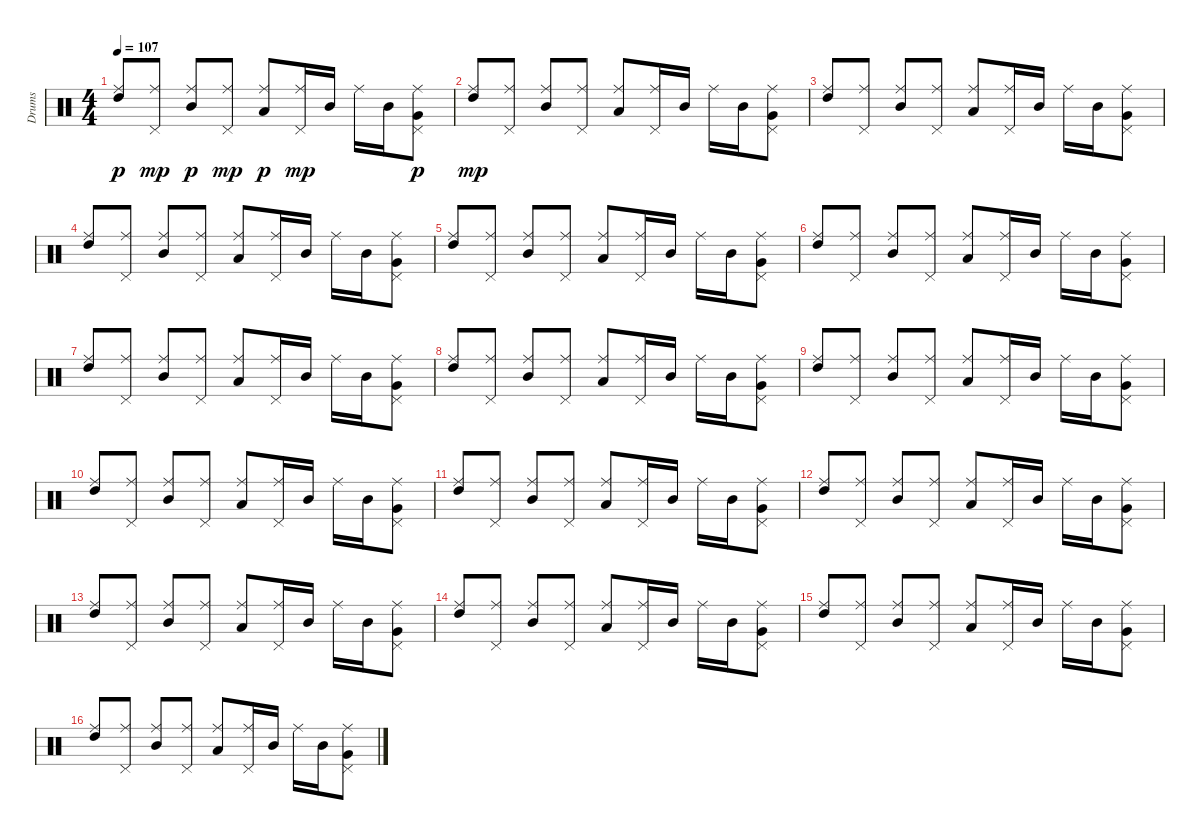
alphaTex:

\track ("Drums" "Drums") {instrument percussion}
\staff {score}
\articulation defaults
\ts (4 4)
\tempo 107
\clef neutral
\ks c
("Ride (middle)" "High Tom (hit)").8{dy p} ("Pedal Hi-Hat (hit)" "Ride (middle)").8{dy mp} ("Ride (middle)" "Mid Tom (hit)").8{dy p} ("Pedal Hi-Hat (hit)" "Ride (middle)").8{dy mp} ("Ride (middle)" "Low Tom (hit)").8{dy p} ("Pedal Hi-Hat (hit)" "Ride (middle)").16{dy mp} "Mid Tom (hit)".16 "Ride (middle)".16 "Mid Tom (hit)".16 ("Pedal Hi-Hat (hit)" "Ride (middle)" "Very Low Tom (hit)").8{dy p} |
("Ride (middle)" "High Tom (hit)").8{dy mp} ("Pedal Hi-Hat (hit)" "Ride (middle)").8 ("Ride (middle)" "Mid Tom (hit)").8 ("Pedal Hi-Hat (hit)" "Ride (middle)").8 ("Ride (middle)" "Low Tom (hit)").8 ("Pedal Hi-Hat (hit)" "Ride (middle)").16 "Mid Tom (hit)".16 "Ride (middle)".16 "Mid Tom (hit)".16 ("Pedal Hi-Hat (hit)" "Ride (middle)" "Very Low Tom (hit)").8 |
("Ride (middle)" "High Tom (hit)").8 ("Pedal Hi-Hat (hit)" "Ride (middle)").8 ("Ride (middle)" "Mid Tom (hit)").8 ("Pedal Hi-Hat (hit)" "Ride (middle)").8 ("Ride (middle)" "Low Tom (hit)").8 ("Pedal Hi-Hat (hit)" "Ride (middle)").16 "Mid Tom (hit)".16 "Ride (middle)".16 "Mid Tom (hit)".16 ("Pedal Hi-Hat (hit)" "Ride (middle)" "Very Low Tom (hit)").8 |
("Ride (middle)" "High Tom (hit)").8 ("Pedal Hi-Hat (hit)" "Ride (middle)").8 ("Ride (middle)" "Mid Tom (hit)").8 ("Pedal Hi-Hat (hit)" "Ride (middle)").8 ("Ride (middle)" "Low Tom (hit)").8 ("Pedal Hi-Hat (hit)" "Ride (middle)").16 "Mid Tom (hit)".16 "Ride (middle)".16 "Mid Tom (hit)".16 ("Pedal Hi-Hat (hit)" "Ride (middle)" "Very Low Tom (hit)").8 |
("Ride (middle)" "High Tom (hit)").8 ("Pedal Hi-Hat (hit)" "Ride (middle)").8 ("Ride (middle)" "Mid Tom (hit)").8 ("Pedal Hi-Hat (hit)" "Ride (middle)").8 ("Ride (middle)" "Low Tom (hit)").8 ("Pedal Hi-Hat (hit)" "Ride (middle)").16 "Mid Tom (hit)".16 "Ride (middle)".16 "Mid Tom (hit)".16 ("Pedal Hi-Hat (hit)" "Ride (middle)" "Very Low Tom (hit)").8 |
("Ride (middle)" "High Tom (hit)").8 ("Pedal Hi-Hat (hit)" "Ride (middle)").8 ("Ride (middle)" "Mid Tom (hit)").8 ("Pedal Hi-Hat (hit)" "Ride (middle)").8 ("Ride (middle)" "Low Tom (hit)").8 ("Pedal Hi-Hat (hit)" "Ride (middle)").16 "Mid Tom (hit)".16 "Ride (middle)".16 "Mid Tom (hit)".16 ("Pedal Hi-Hat (hit)" "Ride (middle)" "Very Low Tom (hit)").8 |
("Ride (middle)" "High Tom (hit)").8 ("Pedal Hi-Hat (hit)" "Ride (middle)").8 ("Ride (middle)" "Mid Tom (hit)").8 ("Pedal Hi-Hat (hit)" "Ride (middle)").8 ("Ride (middle)" "Low Tom (hit)").8 ("Pedal Hi-Hat (hit)" "Ride (middle)").16 "Mid Tom (hit)".16 "Ride (middle)".16 "Mid Tom (hit)".16 ("Pedal Hi-Hat (hit)" "Ride (middle)" "Very Low Tom (hit)").8 |
("Ride (middle)" "High Tom (hit)").8 ("Pedal Hi-Hat (hit)" "Ride (middle)").8 ("Ride (middle)" "Mid Tom (hit)").8 ("Pedal Hi-Hat (hit)" "Ride (middle)").8 ("Ride (middle)" "Low Tom (hit)").8 ("Pedal Hi-Hat (hit)" "Ride (middle)").16 "Mid Tom (hit)".16 "Ride (middle)".16 "Mid Tom (hit)".16 ("Pedal Hi-Hat (hit)" "Ride (middle)" "Very Low Tom (hit)").8 |
("Ride (middle)" "High Tom (hit)").8 ("Pedal Hi-Hat (hit)" "Ride (middle)").8 ("Ride (middle)" "Mid Tom (hit)").8 ("Pedal Hi-Hat (hit)" "Ride (middle)").8 ("Ride (middle)" "Low Tom (hit)").8 ("Pedal Hi-Hat (hit)" "Ride (middle)").16 "Mid Tom (hit)".16 "Ride (middle)".16 "Mid Tom (hit)".16 ("Pedal Hi-Hat (hit)" "Ride (middle)" "Very Low Tom (hit)").8 |
("Ride (middle)" "High Tom (hit)").8 ("Pedal Hi-Hat (hit)" "Ride (middle)").8 ("Ride (middle)" "Mid Tom (hit)").8 ("Pedal Hi-Hat (hit)" "Ride (middle)").8 ("Ride (middle)" "Low Tom (hit)").8 ("Pedal Hi-Hat (hit)" "Ride (middle)").16 "Mid Tom (hit)".16 "Ride (middle)".16 "Mid Tom (hit)".16 ("Pedal Hi-Hat (hit)" "Ride (middle)" "Very Low Tom (hit)").8 |
("Ride (middle)" "High Tom (hit)").8 ("Pedal Hi-Hat (hit)" "Ride (middle)").8 ("Ride (middle)" "Mid Tom (hit)").8 ("Pedal Hi-Hat (hit)" "Ride (middle)").8 ("Ride (middle)" "Low Tom (hit)").8 ("Pedal Hi-Hat (hit)" "Ride (middle)").16 "Mid Tom (hit)".16 "Ride (middle)".16 "Mid Tom (hit)".16 ("Pedal Hi-Hat (hit)" "Ride (middle)" "Very Low Tom (hit)").8 |
("Ride (middle)" "High Tom (hit)").8 ("Pedal Hi-Hat (hit)" "Ride (middle)").8 ("Ride (middle)" "Mid Tom (hit)").8 ("Pedal Hi-Hat (hit)" "Ride (middle)").8 ("Ride (middle)" "Low Tom (hit)").8 ("Pedal Hi-Hat (hit)" "Ride (middle)").16 "Mid Tom (hit)".16 "Ride (middle)".16 "Mid Tom (hit)".16 ("Pedal Hi-Hat (hit)" "Ride (middle)" "Very Low Tom (hit)").8 |
("Ride (middle)" "High Tom (hit)").8 ("Pedal Hi-Hat (hit)" "Ride (middle)").8 ("Ride (middle)" "Mid Tom (hit)").8 ("Pedal Hi-Hat (hit)" "Ride (middle)").8 ("Ride (middle)" "Low Tom (hit)").8 ("Pedal Hi-Hat (hit)" "Ride (middle)").16 "Mid Tom (hit)".16 "Ride (middle)".16 "Mid Tom (hit)".16 ("Pedal Hi-Hat (hit)" "Ride (middle)" "Very Low Tom (hit)").8 |
("Ride (middle)" "High Tom (hit)").8 ("Pedal Hi-Hat (hit)" "Ride (middle)").8 ("Ride (middle)" "Mid Tom (hit)").8 ("Pedal Hi-Hat (hit)" "Ride (middle)").8 ("Ride (middle)" "Low Tom (hit)").8 ("Pedal Hi-Hat (hit)" "Ride (middle)").16 "Mid Tom (hit)".16 "Ride (middle)".16 "Mid Tom (hit)".16 ("Pedal Hi-Hat (hit)" "Ride (middle)" "Very Low Tom (hit)").8 |
("Ride (middle)" "High Tom (hit)").8 ("Pedal Hi-Hat (hit)" "Ride (middle)").8 ("Ride (middle)" "Mid Tom (hit)").8 ("Pedal Hi-Hat (hit)" "Ride (middle)").8 ("Ride (middle)" "Low Tom (hit)").8 ("Pedal Hi-Hat (hit)" "Ride (middle)").16 "Mid Tom (hit)".16 "Ride (middle)".16 "Mid Tom (hit)".16 ("Pedal Hi-Hat (hit)" "Ride (middle)" "Very Low Tom (hit)").8 |
("Ride (middle)" "High Tom (hit)").8 ("Pedal Hi-Hat (hit)" "Ride (middle)").8 ("Ride (middle)" "Mid Tom (hit)").8 ("Pedal Hi-Hat (hit)" "Ride (middle)").8 ("Ride (middle)" "Low Tom (hit)").8 ("Pedal Hi-Hat (hit)" "Ride (middle)").16 "Mid Tom (hit)".16 "Ride (middle)".16 "Mid Tom (hit)".16 ("Pedal Hi-Hat (hit)" "Ride (middle)" "Very Low Tom (hit)").8
